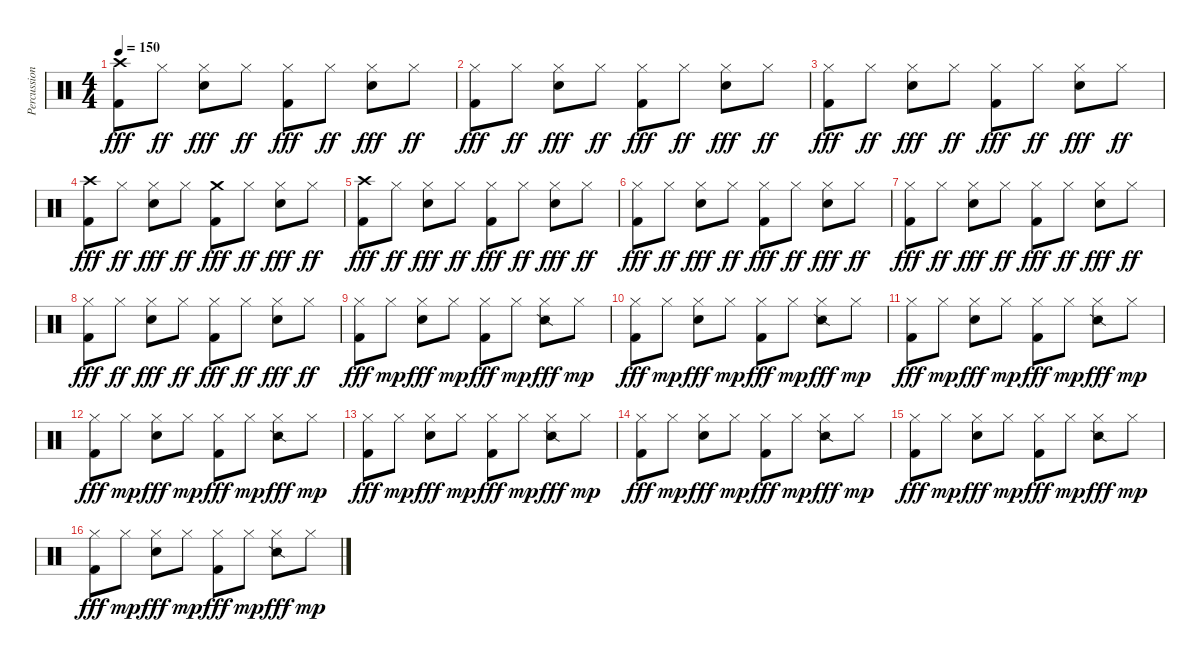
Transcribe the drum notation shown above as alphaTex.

\track ("Percussion" "Percussion") {instrument percussion}
\staff {score}
\articulation defaults
\ts (4 4)
\tempo 150
\clef neutral
\ks c
("Crash high (hit)" "Kick (hit) 2").8{dy fff} "Hi-Hat (closed)".8{dy ff} ("Hi-Hat (closed)" "Snare (hit) 2").8{dy fff} "Hi-Hat (closed)".8{dy ff} ("Hi-Hat (closed)" "Kick (hit) 2").8{dy fff} "Hi-Hat (closed)".8{dy ff} ("Hi-Hat (closed)" "Snare (hit) 2").8{dy fff} "Hi-Hat (closed)".8{dy ff} |
("Hi-Hat (closed)" "Kick (hit) 2").8{dy fff} "Hi-Hat (closed)".8{dy ff} ("Hi-Hat (closed)" "Snare (hit) 2").8{dy fff} "Hi-Hat (closed)".8{dy ff} ("Hi-Hat (closed)" "Kick (hit) 2").8{dy fff} "Hi-Hat (closed)".8{dy ff} ("Hi-Hat (closed)" "Snare (hit) 2").8{dy fff} "Hi-Hat (closed)".8{dy ff} |
("Hi-Hat (closed)" "Kick (hit) 2").8{dy fff} "Hi-Hat (closed)".8{dy ff} ("Hi-Hat (closed)" "Snare (hit) 2").8{dy fff} "Hi-Hat (closed)".8{dy ff} ("Hi-Hat (closed)" "Kick (hit) 2").8{dy fff} "Hi-Hat (closed)".8{dy ff} ("Hi-Hat (closed)" "Snare (hit) 2").8{dy fff} "Hi-Hat (closed)".8{dy ff} |
("Crash high (hit)" "Kick (hit) 2").8{dy fff} "Hi-Hat (closed)".8{dy ff} ("Hi-Hat (closed)" "Snare (hit) 2").8{dy fff} "Hi-Hat (closed)".8{dy ff} ("Crash medium (hit)" "Kick (hit) 2").8{dy fff} "Hi-Hat (closed)".8{dy ff} ("Hi-Hat (closed)" "Snare (hit) 2").8{dy fff} "Hi-Hat (closed)".8{dy ff} |
("Crash high (hit)" "Kick (hit) 2").8{dy fff} "Hi-Hat (closed)".8{dy ff} ("Hi-Hat (closed)" "Snare (hit) 2").8{dy fff} "Hi-Hat (closed)".8{dy ff} ("Hi-Hat (closed)" "Kick (hit) 2").8{dy fff} "Hi-Hat (closed)".8{dy ff} ("Hi-Hat (closed)" "Snare (hit) 2").8{dy fff} "Hi-Hat (closed)".8{dy ff} |
("Hi-Hat (closed)" "Kick (hit) 2").8{dy fff} "Hi-Hat (closed)".8{dy ff} ("Hi-Hat (closed)" "Snare (hit) 2").8{dy fff} "Hi-Hat (closed)".8{dy ff} ("Hi-Hat (closed)" "Kick (hit) 2").8{dy fff} "Hi-Hat (closed)".8{dy ff} ("Hi-Hat (closed)" "Snare (hit) 2").8{dy fff} "Hi-Hat (closed)".8{dy ff} |
("Hi-Hat (closed)" "Kick (hit) 2").8{dy fff} "Hi-Hat (closed)".8{dy ff} ("Hi-Hat (closed)" "Snare (hit) 2").8{dy fff} "Hi-Hat (closed)".8{dy ff} ("Hi-Hat (closed)" "Kick (hit) 2").8{dy fff} "Hi-Hat (closed)".8{dy ff} ("Hi-Hat (closed)" "Snare (hit) 2").8{dy fff} "Hi-Hat (closed)".8{dy ff} |
("Hi-Hat (closed)" "Kick (hit) 2").8{dy fff} "Hi-Hat (closed)".8{dy ff} ("Hi-Hat (closed)" "Snare (hit) 2").8{dy fff} "Hi-Hat (closed)".8{dy ff} ("Hi-Hat (closed)" "Kick (hit) 2").8{dy fff} "Hi-Hat (closed)".8{dy ff} ("Hi-Hat (closed)" "Snare (hit) 2").8{dy fff} "Hi-Hat (closed)".8{dy ff} |
("Hi-Hat (closed)" "Kick (hit) 2").8{dy fff} "Hi-Hat (closed)".8{dy mp} ("Hi-Hat (closed)" "Snare (hit) 2").8{dy fff} "Hi-Hat (closed)".8{dy mp} ("Hi-Hat (closed)" "Kick (hit) 2").8{dy fff} "Hi-Hat (closed)".8{dy mp} ("Hi-Hat (closed)" "Snare (side stick) 2").8{dy fff} "Hi-Hat (closed)".8{dy mp} |
("Hi-Hat (closed)" "Kick (hit) 2").8{dy fff} "Hi-Hat (closed)".8{dy mp} ("Hi-Hat (closed)" "Snare (hit) 2").8{dy fff} "Hi-Hat (closed)".8{dy mp} ("Hi-Hat (closed)" "Kick (hit) 2").8{dy fff} "Hi-Hat (closed)".8{dy mp} ("Hi-Hat (closed)" "Snare (side stick) 2").8{dy fff} "Hi-Hat (closed)".8{dy mp} |
("Hi-Hat (closed)" "Kick (hit) 2").8{dy fff} "Hi-Hat (closed)".8{dy mp} ("Hi-Hat (closed)" "Snare (hit) 2").8{dy fff} "Hi-Hat (closed)".8{dy mp} ("Hi-Hat (closed)" "Kick (hit) 2").8{dy fff} "Hi-Hat (closed)".8{dy mp} ("Hi-Hat (closed)" "Snare (side stick) 2").8{dy fff} "Hi-Hat (closed)".8{dy mp} |
("Hi-Hat (closed)" "Kick (hit) 2").8{dy fff} "Hi-Hat (closed)".8{dy mp} ("Hi-Hat (closed)" "Snare (hit) 2").8{dy fff} "Hi-Hat (closed)".8{dy mp} ("Hi-Hat (closed)" "Kick (hit) 2").8{dy fff} "Hi-Hat (closed)".8{dy mp} ("Hi-Hat (closed)" "Snare (side stick) 2").8{dy fff} "Hi-Hat (closed)".8{dy mp} |
("Hi-Hat (closed)" "Kick (hit) 2").8{dy fff} "Hi-Hat (closed)".8{dy mp} ("Hi-Hat (closed)" "Snare (hit) 2").8{dy fff} "Hi-Hat (closed)".8{dy mp} ("Hi-Hat (closed)" "Kick (hit) 2").8{dy fff} "Hi-Hat (closed)".8{dy mp} ("Hi-Hat (closed)" "Snare (side stick) 2").8{dy fff} "Hi-Hat (closed)".8{dy mp} |
("Hi-Hat (closed)" "Kick (hit) 2").8{dy fff} "Hi-Hat (closed)".8{dy mp} ("Hi-Hat (closed)" "Snare (hit) 2").8{dy fff} "Hi-Hat (closed)".8{dy mp} ("Hi-Hat (closed)" "Kick (hit) 2").8{dy fff} "Hi-Hat (closed)".8{dy mp} ("Hi-Hat (closed)" "Snare (side stick) 2").8{dy fff} "Hi-Hat (closed)".8{dy mp} |
("Hi-Hat (closed)" "Kick (hit) 2").8{dy fff} "Hi-Hat (closed)".8{dy mp} ("Hi-Hat (closed)" "Snare (hit) 2").8{dy fff} "Hi-Hat (closed)".8{dy mp} ("Hi-Hat (closed)" "Kick (hit) 2").8{dy fff} "Hi-Hat (closed)".8{dy mp} ("Hi-Hat (closed)" "Snare (side stick) 2").8{dy fff} "Hi-Hat (closed)".8{dy mp} |
("Hi-Hat (closed)" "Kick (hit) 2").8{dy fff} "Hi-Hat (closed)".8{dy mp} ("Hi-Hat (closed)" "Snare (hit) 2").8{dy fff} "Hi-Hat (closed)".8{dy mp} ("Hi-Hat (closed)" "Kick (hit) 2").8{dy fff} "Hi-Hat (closed)".8{dy mp} ("Hi-Hat (closed)" "Snare (side stick) 2").8{dy fff} "Hi-Hat (closed)".8{dy mp}
